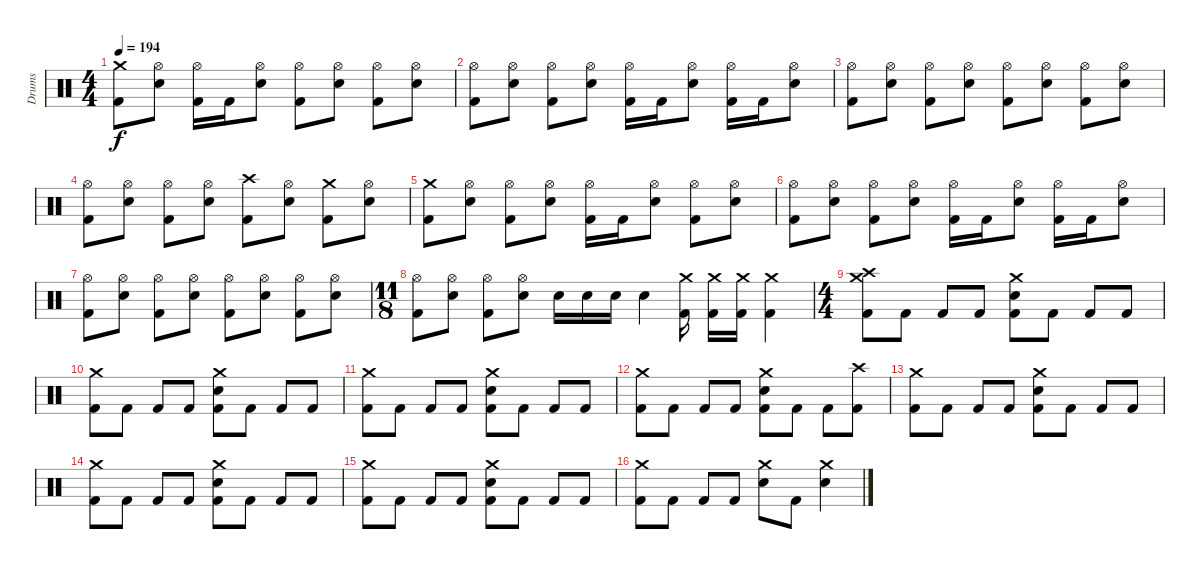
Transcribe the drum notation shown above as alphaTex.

\track ("Drums" "Drums") {instrument percussion}
\staff {score}
\articulation defaults
\ts (4 4)
\tempo 194
\clef neutral
\ks c
("Crash medium (hit)" "Kick (hit) 2").8{dy f} ("Hi-Hat (open)" "Electric Snare (hit)").8 ("Hi-Hat (open)" "Kick (hit) 2").16 "Kick (hit) 2".16 ("Hi-Hat (open)" "Electric Snare (hit)").8 ("Hi-Hat (open)" "Kick (hit) 2").8 ("Hi-Hat (open)" "Electric Snare (hit)").8 ("Hi-Hat (open)" "Kick (hit) 2").8 ("Hi-Hat (open)" "Electric Snare (hit)").8 |
("Hi-Hat (open)" "Kick (hit) 2").8 ("Hi-Hat (open)" "Electric Snare (hit)").8 ("Hi-Hat (open)" "Kick (hit) 2").8 ("Hi-Hat (open)" "Electric Snare (hit)").8 ("Hi-Hat (open)" "Kick (hit) 2").16 "Kick (hit) 2".16 ("Hi-Hat (open)" "Electric Snare (hit)").8 ("Hi-Hat (open)" "Kick (hit) 2").16 "Kick (hit) 2".16 ("Hi-Hat (open)" "Electric Snare (hit)").8 |
("Hi-Hat (open)" "Kick (hit) 2").8 ("Hi-Hat (open)" "Electric Snare (hit)").8 ("Hi-Hat (open)" "Kick (hit) 2").8 ("Hi-Hat (open)" "Electric Snare (hit)").8 ("Hi-Hat (open)" "Kick (hit) 2").8 ("Hi-Hat (open)" "Electric Snare (hit)").8 ("Hi-Hat (open)" "Kick (hit) 2").8 ("Hi-Hat (open)" "Electric Snare (hit)").8 |
("Hi-Hat (open)" "Kick (hit) 2").8 ("Hi-Hat (open)" "Electric Snare (hit)").8 ("Hi-Hat (open)" "Kick (hit) 2").8 ("Hi-Hat (open)" "Electric Snare (hit)").8 ("Crash high (hit)" "Kick (hit) 2").8 ("Hi-Hat (open)" "Electric Snare (hit)").8 ("Crash medium (hit)" "Kick (hit) 2").8 ("Hi-Hat (open)" "Electric Snare (hit)").8 |
("Crash medium (hit)" "Kick (hit) 2").8 ("Hi-Hat (open)" "Electric Snare (hit)").8 ("Hi-Hat (open)" "Kick (hit) 2").8 ("Hi-Hat (open)" "Electric Snare (hit)").8 ("Hi-Hat (open)" "Kick (hit) 2").16 "Kick (hit) 2".16 ("Hi-Hat (open)" "Electric Snare (hit)").8 ("Hi-Hat (open)" "Kick (hit) 2").8 ("Hi-Hat (open)" "Electric Snare (hit)").8 |
("Hi-Hat (open)" "Kick (hit) 2").8 ("Hi-Hat (open)" "Electric Snare (hit)").8 ("Hi-Hat (open)" "Kick (hit) 2").8 ("Hi-Hat (open)" "Electric Snare (hit)").8 ("Hi-Hat (open)" "Kick (hit) 2").16 "Kick (hit) 2".16 ("Hi-Hat (open)" "Electric Snare (hit)").8 ("Hi-Hat (open)" "Kick (hit) 2").16 "Kick (hit) 2".16 ("Hi-Hat (open)" "Electric Snare (hit)").8 |
("Hi-Hat (open)" "Kick (hit) 2").8 ("Hi-Hat (open)" "Electric Snare (hit)").8 ("Hi-Hat (open)" "Kick (hit) 2").8 ("Hi-Hat (open)" "Electric Snare (hit)").8 ("Hi-Hat (open)" "Kick (hit) 2").8 ("Hi-Hat (open)" "Electric Snare (hit)").8 ("Hi-Hat (open)" "Kick (hit) 2").8 ("Hi-Hat (open)" "Electric Snare (hit)").8 |
\ts (11 8)
("Hi-Hat (open)" "Kick (hit) 2").8 ("Hi-Hat (open)" "Electric Snare (hit)").8 ("Hi-Hat (open)" "Kick (hit) 2").8 ("Hi-Hat (open)" "Electric Snare (hit)").8 "Electric Snare (hit)".16 "Electric Snare (hit)".16 "Electric Snare (hit)".16 "Electric Snare (hit)".4 ("Crash medium (hit)" "Kick (hit) 2").16 ("Crash medium (hit)" "Kick (hit) 2").16 ("Crash medium (hit)" "Kick (hit) 2").16 ("Crash medium (hit)" "Kick (hit) 2").4 |
\ts (4 4)
("Crash medium (hit)" "Crash high (hit)" "Kick (hit) 2").8 "Kick (hit) 2".8 "Kick (hit) 2".8 "Kick (hit) 2".8 ("Crash medium (hit)" "Electric Snare (hit)" "Kick (hit) 2").8 "Kick (hit) 2".8 "Kick (hit) 2".8 "Kick (hit) 2".8 |
("Crash medium (hit)" "Kick (hit) 2").8 "Kick (hit) 2".8 "Kick (hit) 2".8 "Kick (hit) 2".8 ("Crash medium (hit)" "Electric Snare (hit)" "Kick (hit) 2").8 "Kick (hit) 2".8 "Kick (hit) 2".8 "Kick (hit) 2".8 |
("Crash medium (hit)" "Kick (hit) 2").8 "Kick (hit) 2".8 "Kick (hit) 2".8 "Kick (hit) 2".8 ("Crash medium (hit)" "Electric Snare (hit)" "Kick (hit) 2").8 "Kick (hit) 2".8 "Kick (hit) 2".8 "Kick (hit) 2".8 |
("Crash medium (hit)" "Kick (hit) 2").8 "Kick (hit) 2".8 "Kick (hit) 2".8 "Kick (hit) 2".8 ("Crash medium (hit)" "Electric Snare (hit)" "Kick (hit) 2").8 "Kick (hit) 2".8 "Kick (hit) 2".8 ("Crash high (hit)" "Kick (hit) 2").8 |
("Crash medium (hit)" "Kick (hit) 2").8 "Kick (hit) 2".8 "Kick (hit) 2".8 "Kick (hit) 2".8 ("Crash medium (hit)" "Electric Snare (hit)" "Kick (hit) 2").8 "Kick (hit) 2".8 "Kick (hit) 2".8 "Kick (hit) 2".8 |
("Crash medium (hit)" "Kick (hit) 2").8 "Kick (hit) 2".8 "Kick (hit) 2".8 "Kick (hit) 2".8 ("Crash medium (hit)" "Electric Snare (hit)" "Kick (hit) 2").8 "Kick (hit) 2".8 "Kick (hit) 2".8 "Kick (hit) 2".8 |
("Crash medium (hit)" "Kick (hit) 2").8 "Kick (hit) 2".8 "Kick (hit) 2".8 "Kick (hit) 2".8 ("Crash medium (hit)" "Electric Snare (hit)" "Kick (hit) 2").8 "Kick (hit) 2".8 "Kick (hit) 2".8 "Kick (hit) 2".8 |
("Crash medium (hit)" "Kick (hit) 2").8 "Kick (hit) 2".8 "Kick (hit) 2".8 "Kick (hit) 2".8 ("Crash medium (hit)" "Electric Snare (hit)").8 "Kick (hit) 2".8 ("Crash medium (hit)" "Electric Snare (hit)").4
